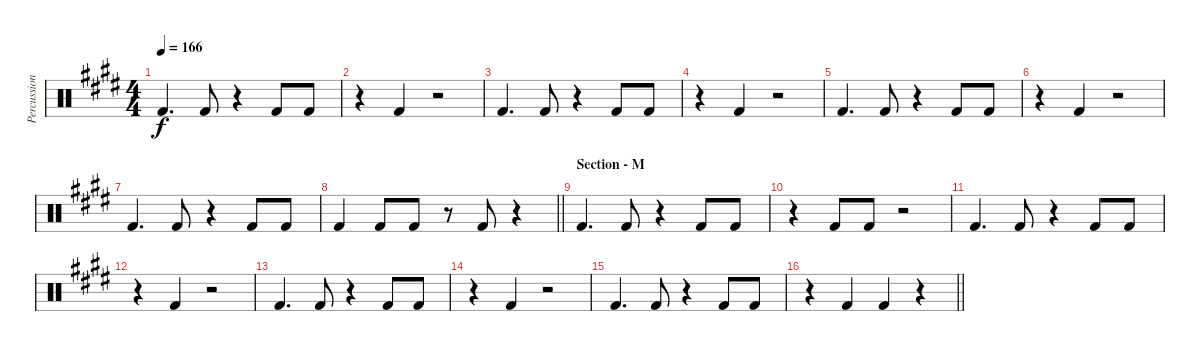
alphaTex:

\track ("Percussion - Other Again" "Percussion") {instrument percussion}
\staff {score}
\articulation defaults
\ts (4 4)
\tempo 166
\clef neutral
\ks e "Kick (hit) 2".4{d dy f} "Kick (hit) 2".8
r.4 "Kick (hit) 2".8 "Kick (hit) 2".8 |
r.4 "Kick (hit) 2".4 r.2 |
"Kick (hit) 2".4{d} "Kick (hit) 2".8 r.4 "Kick (hit) 2".8 "Kick (hit) 2".8 |
r.4 "Kick (hit) 2".4 r.2 |
"Kick (hit) 2".4{d} "Kick (hit) 2".8 r.4 "Kick (hit) 2".8 "Kick (hit) 2".8 |
r.4 "Kick (hit) 2".4 r.2 |
"Kick (hit) 2".4{d} "Kick (hit) 2".8 r.4 "Kick (hit) 2".8 "Kick (hit) 2".8 |
\barLineRight lightlight "Kick (hit) 2".4 "Kick (hit) 2".8 "Kick (hit) 2".8
r.8 "Kick (hit) 2".8 r.4 |
\section ("" "Section - M")
"Kick (hit) 2".4{d} "Kick (hit) 2".8 r.4 "Kick (hit) 2".8 "Kick (hit) 2".8 |
r.4 "Kick (hit) 2".8 "Kick (hit) 2".8 r.2 |
"Kick (hit) 2".4{d} "Kick (hit) 2".8 r.4 "Kick (hit) 2".8 "Kick (hit) 2".8 |
r.4 "Kick (hit) 2".4 r.2 |
"Kick (hit) 2".4{d} "Kick (hit) 2".8 r.4 "Kick (hit) 2".8 "Kick (hit) 2".8 |
r.4 "Kick (hit) 2".4 r.2 |
"Kick (hit) 2".4{d} "Kick (hit) 2".8 r.4 "Kick (hit) 2".8 "Kick (hit) 2".8 |
\barLineRight lightlight
r.4 "Kick (hit) 2".4 "Kick (hit) 2".4 r.4
